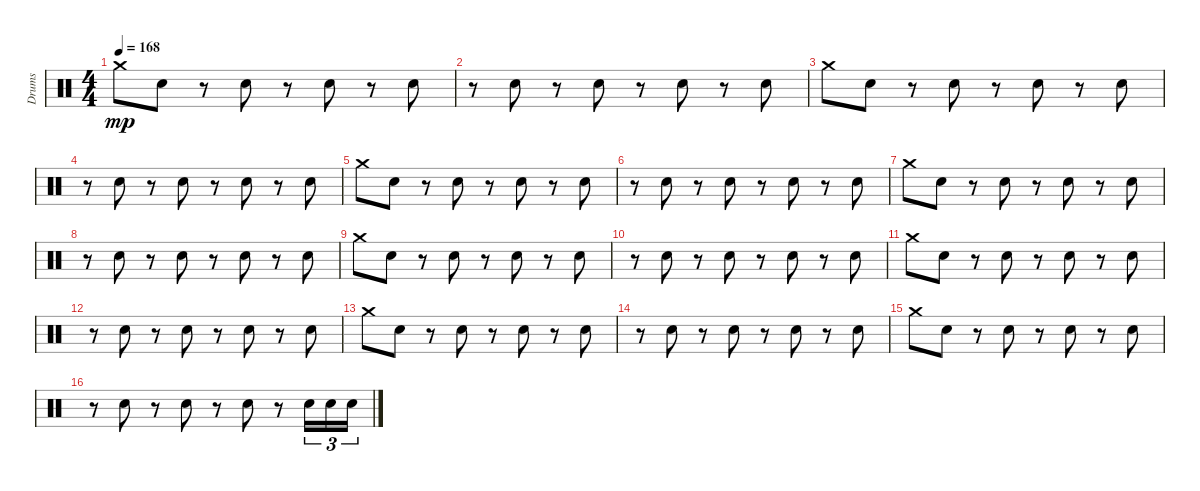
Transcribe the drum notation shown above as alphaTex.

\track ("Drums" "Drums") {instrument percussion}
\staff {score}
\articulation defaults
\ts (4 4)
\tempo 168
\clef neutral
\ks c "Crash medium (hit)".8{dy mp} "Snare (hit) 2".8
r.8 "Snare (hit) 2".8 r.8 "Snare (hit) 2".8 r.8 "Snare (hit) 2".8 |
r.8 "Snare (hit) 2".8 r.8 "Snare (hit) 2".8 r.8 "Snare (hit) 2".8 r.8 "Snare (hit) 2".8 |
"Crash medium (hit)".8 "Snare (hit) 2".8 r.8 "Snare (hit) 2".8 r.8 "Snare (hit) 2".8 r.8 "Snare (hit) 2".8 |
r.8 "Snare (hit) 2".8 r.8 "Snare (hit) 2".8 r.8 "Snare (hit) 2".8 r.8 "Snare (hit) 2".8 |
"Crash medium (hit)".8 "Snare (hit) 2".8 r.8 "Snare (hit) 2".8 r.8 "Snare (hit) 2".8 r.8 "Snare (hit) 2".8 |
r.8 "Snare (hit) 2".8 r.8 "Snare (hit) 2".8 r.8 "Snare (hit) 2".8 r.8 "Snare (hit) 2".8 |
"Crash medium (hit)".8 "Snare (hit) 2".8 r.8 "Snare (hit) 2".8 r.8 "Snare (hit) 2".8 r.8 "Snare (hit) 2".8 |
r.8 "Snare (hit) 2".8 r.8 "Snare (hit) 2".8 r.8 "Snare (hit) 2".8 r.8 "Snare (hit) 2".8 |
"Crash medium (hit)".8 "Snare (hit) 2".8 r.8 "Snare (hit) 2".8 r.8 "Snare (hit) 2".8 r.8 "Snare (hit) 2".8 |
r.8 "Snare (hit) 2".8 r.8 "Snare (hit) 2".8 r.8 "Snare (hit) 2".8 r.8 "Snare (hit) 2".8 |
"Crash medium (hit)".8 "Snare (hit) 2".8 r.8 "Snare (hit) 2".8 r.8 "Snare (hit) 2".8 r.8 "Snare (hit) 2".8 |
r.8 "Snare (hit) 2".8 r.8 "Snare (hit) 2".8 r.8 "Snare (hit) 2".8 r.8 "Snare (hit) 2".8 |
"Crash medium (hit)".8 "Snare (hit) 2".8 r.8 "Snare (hit) 2".8 r.8 "Snare (hit) 2".8 r.8 "Snare (hit) 2".8 |
r.8 "Snare (hit) 2".8 r.8 "Snare (hit) 2".8 r.8 "Snare (hit) 2".8 r.8 "Snare (hit) 2".8 |
"Crash medium (hit)".8 "Snare (hit) 2".8 r.8 "Snare (hit) 2".8 r.8 "Snare (hit) 2".8 r.8 "Snare (hit) 2".8 |
r.8 "Snare (hit) 2".8 r.8 "Snare (hit) 2".8 r.8 "Snare (hit) 2".8 r.8 "Snare (hit) 2".16{tu (3 2)} "Snare (hit) 2".16{tu (3 2)} "Snare (hit) 2".16{tu (3 2)}
